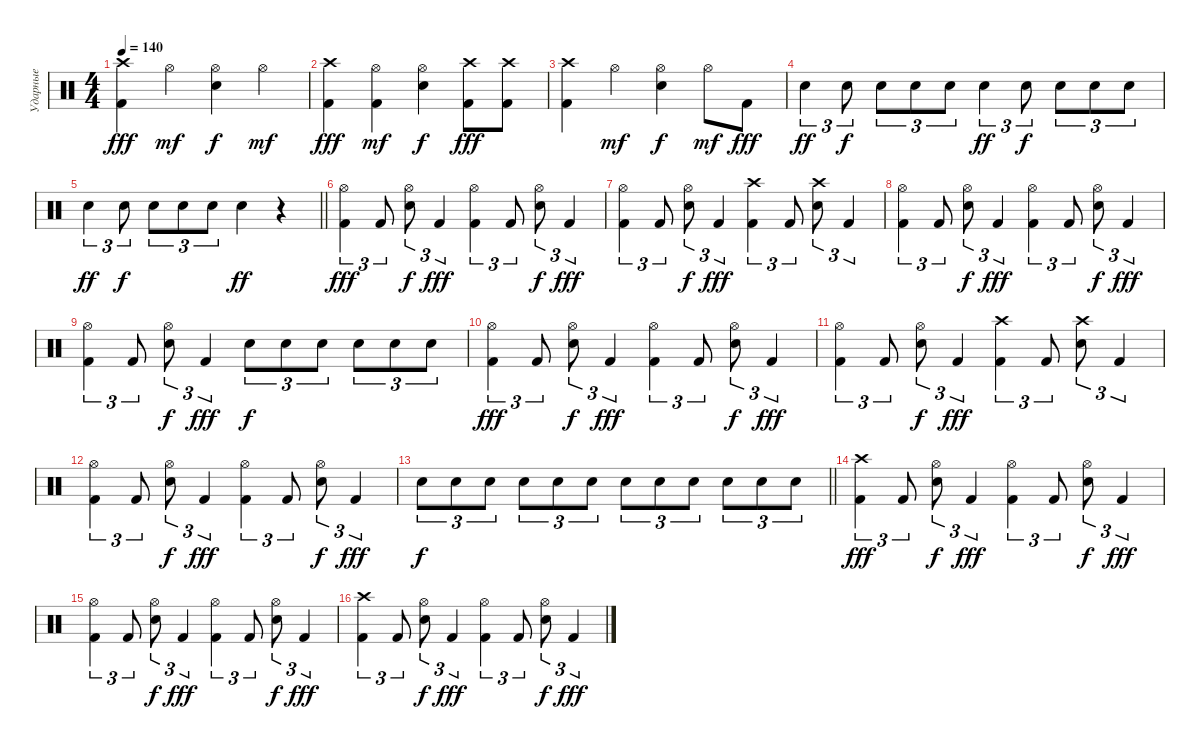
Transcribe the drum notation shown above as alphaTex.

\track ("Ударные" "Ударные") {instrument percussion}
\staff {score}
\articulation defaults
\ts (4 4)
\tempo 140
\clef neutral
\ks c
("Kick (hit) 2" "Crash high (hit)").4{dy fff} "Hi-Hat (open)".4{dy mf} ("Snare (hit) 2" "Hi-Hat (open)").4{dy f} "Hi-Hat (open)".4{dy mf} |
("Kick (hit) 2" "Crash high (hit)").4{dy fff} ("Kick (hit) 2" "Hi-Hat (open)").4{dy mf} ("Snare (hit) 2" "Hi-Hat (open)").4{dy f} ("Kick (hit) 2" "Crash high (hit)").8{dy fff} ("Kick (hit) 2" "Crash high (hit)").8 |
("Kick (hit) 2" "Crash high (hit)").4 "Hi-Hat (open)".4{dy mf} ("Snare (hit) 2" "Hi-Hat (open)").4{dy f} "Hi-Hat (open)".8{dy mf} "Kick (hit) 2".8{dy fff} |
"Snare (hit) 2".4{tu (3 2) dy ff} "Snare (hit) 2".8{tu (3 2) dy f} "Snare (hit) 2".8{tu (3 2)} "Snare (hit) 2".8{tu (3 2)} "Snare (hit) 2".8{tu (3 2)} "Snare (hit) 2".4{tu (3 2) dy ff} "Snare (hit) 2".8{tu (3 2) dy f} "Snare (hit) 2".8{tu (3 2)} "Snare (hit) 2".8{tu (3 2)} "Snare (hit) 2".8{tu (3 2)} |
\barLineRight lightlight "Snare (hit) 2".4{tu (3 2) dy ff} "Snare (hit) 2".8{tu (3 2) dy f} "Snare (hit) 2".8{tu (3 2)} "Snare (hit) 2".8{tu (3 2)} "Snare (hit) 2".8{tu (3 2)} "Snare (hit) 2".4{dy ff}
r.4 |
("Kick (hit) 2" "Hi-Hat (open)").4{tu (3 2) dy fff} "Kick (hit) 2".8{tu (3 2)} ("Snare (hit) 2" "Hi-Hat (open)").8{tu (3 2) dy f} "Kick (hit) 2".4{tu (3 2) dy fff} ("Kick (hit) 2" "Hi-Hat (open)").4{tu (3 2)} "Kick (hit) 2".8{tu (3 2)} ("Snare (hit) 2" "Hi-Hat (open)").8{tu (3 2) dy f} "Kick (hit) 2".4{tu (3 2) dy fff} |
("Kick (hit) 2" "Hi-Hat (open)").4{tu (3 2)} "Kick (hit) 2".8{tu (3 2)} ("Snare (hit) 2" "Hi-Hat (open)").8{tu (3 2) dy f} "Kick (hit) 2".4{tu (3 2) dy fff} ("Kick (hit) 2" "Crash high (hit)").4{tu (3 2)} "Kick (hit) 2".8{tu (3 2)} ("Snare (hit) 2" "Crash high (hit)").8{tu (3 2)} "Kick (hit) 2".4{tu (3 2)} |
("Kick (hit) 2" "Hi-Hat (open)").4{tu (3 2)} "Kick (hit) 2".8{tu (3 2)} ("Snare (hit) 2" "Hi-Hat (open)").8{tu (3 2) dy f} "Kick (hit) 2".4{tu (3 2) dy fff} ("Kick (hit) 2" "Hi-Hat (open)").4{tu (3 2)} "Kick (hit) 2".8{tu (3 2)} ("Snare (hit) 2" "Hi-Hat (open)").8{tu (3 2) dy f} "Kick (hit) 2".4{tu (3 2) dy fff} |
("Kick (hit) 2" "Hi-Hat (open)").4{tu (3 2)} "Kick (hit) 2".8{tu (3 2)} ("Snare (hit) 2" "Hi-Hat (open)").8{tu (3 2) dy f} "Kick (hit) 2".4{tu (3 2) dy fff} "Snare (hit) 2".8{tu (3 2) dy f} "Snare (hit) 2".8{tu (3 2)} "Snare (hit) 2".8{tu (3 2)} "Snare (hit) 2".8{tu (3 2)} "Snare (hit) 2".8{tu (3 2)} "Snare (hit) 2".8{tu (3 2)} |
("Kick (hit) 2" "Hi-Hat (open)").4{tu (3 2) dy fff} "Kick (hit) 2".8{tu (3 2)} ("Snare (hit) 2" "Hi-Hat (open)").8{tu (3 2) dy f} "Kick (hit) 2".4{tu (3 2) dy fff} ("Kick (hit) 2" "Hi-Hat (open)").4{tu (3 2)} "Kick (hit) 2".8{tu (3 2)} ("Snare (hit) 2" "Hi-Hat (open)").8{tu (3 2) dy f} "Kick (hit) 2".4{tu (3 2) dy fff} |
("Kick (hit) 2" "Hi-Hat (open)").4{tu (3 2)} "Kick (hit) 2".8{tu (3 2)} ("Snare (hit) 2" "Hi-Hat (open)").8{tu (3 2) dy f} "Kick (hit) 2".4{tu (3 2) dy fff} ("Kick (hit) 2" "Crash high (hit)").4{tu (3 2)} "Kick (hit) 2".8{tu (3 2)} ("Snare (hit) 2" "Crash high (hit)").8{tu (3 2)} "Kick (hit) 2".4{tu (3 2)} |
("Kick (hit) 2" "Hi-Hat (open)").4{tu (3 2)} "Kick (hit) 2".8{tu (3 2)} ("Snare (hit) 2" "Hi-Hat (open)").8{tu (3 2) dy f} "Kick (hit) 2".4{tu (3 2) dy fff} ("Kick (hit) 2" "Hi-Hat (open)").4{tu (3 2)} "Kick (hit) 2".8{tu (3 2)} ("Snare (hit) 2" "Hi-Hat (open)").8{tu (3 2) dy f} "Kick (hit) 2".4{tu (3 2) dy fff} |
\barLineRight lightlight "Snare (hit) 2".8{tu (3 2) dy f} "Snare (hit) 2".8{tu (3 2)} "Snare (hit) 2".8{tu (3 2)} "Snare (hit) 2".8{tu (3 2)} "Snare (hit) 2".8{tu (3 2)} "Snare (hit) 2".8{tu (3 2)} "Snare (hit) 2".8{tu (3 2)} "Snare (hit) 2".8{tu (3 2)} "Snare (hit) 2".8{tu (3 2)} "Snare (hit) 2".8{tu (3 2)} "Snare (hit) 2".8{tu (3 2)} "Snare (hit) 2".8{tu (3 2)}
|
("Kick (hit) 2" "Crash high (hit)").4{tu (3 2) dy fff} "Kick (hit) 2".8{tu (3 2)} ("Snare (hit) 2" "Hi-Hat (open)").8{tu (3 2) dy f} "Kick (hit) 2".4{tu (3 2) dy fff} ("Kick (hit) 2" "Hi-Hat (open)").4{tu (3 2)} "Kick (hit) 2".8{tu (3 2)} ("Snare (hit) 2" "Hi-Hat (open)").8{tu (3 2) dy f} "Kick (hit) 2".4{tu (3 2) dy fff} |
("Kick (hit) 2" "Hi-Hat (open)").4{tu (3 2)} "Kick (hit) 2".8{tu (3 2)} ("Snare (hit) 2" "Hi-Hat (open)").8{tu (3 2) dy f} "Kick (hit) 2".4{tu (3 2) dy fff} ("Kick (hit) 2" "Hi-Hat (open)").4{tu (3 2)} "Kick (hit) 2".8{tu (3 2)} ("Snare (hit) 2" "Hi-Hat (open)").8{tu (3 2) dy f} "Kick (hit) 2".4{tu (3 2) dy fff} |
("Kick (hit) 2" "Crash high (hit)").4{tu (3 2)} "Kick (hit) 2".8{tu (3 2)} ("Snare (hit) 2" "Hi-Hat (open)").8{tu (3 2) dy f} "Kick (hit) 2".4{tu (3 2) dy fff} ("Kick (hit) 2" "Hi-Hat (open)").4{tu (3 2)} "Kick (hit) 2".8{tu (3 2)} ("Snare (hit) 2" "Hi-Hat (open)").8{tu (3 2) dy f} "Kick (hit) 2".4{tu (3 2) dy fff}
